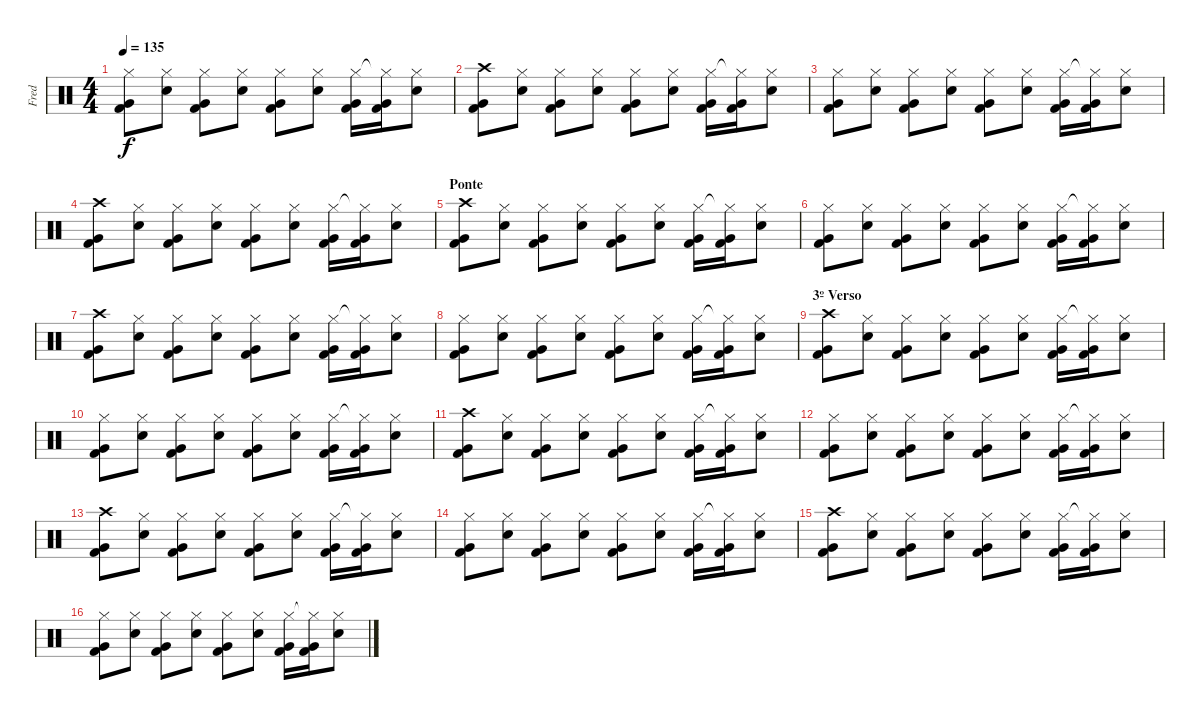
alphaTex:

\track ("Fred" "Fred") {instrument percussion}
\staff {score}
\articulation defaults
\ts (4 4)
\tempo 135
\clef neutral
\ks c
("Very Low Tom (hit)" "Kick (hit) 2" "Hi-Hat (closed)").8{dy f} ("Snare (hit) 2" "Hi-Hat (closed)").8 ("Very Low Tom (hit)" "Kick (hit) 2" "Hi-Hat (closed)").8 ("Snare (hit) 2" "Hi-Hat (closed)").8 ("Very Low Tom (hit)" "Kick (hit) 2" "Hi-Hat (closed)").8 ("Snare (hit) 2" "Hi-Hat (closed)").8 ("Very Low Tom (hit)" "Kick (hit) 2" "Hi-Hat (closed)").16 ("Very Low Tom (hit)" "Kick (hit) 2" "Hi-Hat (closed)"{t}).16 ("Snare (hit) 2" "Hi-Hat (closed)").8 |
("Very Low Tom (hit)" "Kick (hit) 2" "Crash high (hit)").8 ("Snare (hit) 2" "Hi-Hat (closed)").8 ("Very Low Tom (hit)" "Kick (hit) 2" "Hi-Hat (closed)").8 ("Snare (hit) 2" "Hi-Hat (closed)").8 ("Very Low Tom (hit)" "Kick (hit) 2" "Hi-Hat (closed)").8 ("Snare (hit) 2" "Hi-Hat (closed)").8 ("Very Low Tom (hit)" "Kick (hit) 2" "Hi-Hat (closed)").16 ("Very Low Tom (hit)" "Kick (hit) 2" "Hi-Hat (closed)"{t}).16 ("Snare (hit) 2" "Hi-Hat (closed)").8 |
("Very Low Tom (hit)" "Kick (hit) 2" "Hi-Hat (closed)").8 ("Snare (hit) 2" "Hi-Hat (closed)").8 ("Very Low Tom (hit)" "Kick (hit) 2" "Hi-Hat (closed)").8 ("Snare (hit) 2" "Hi-Hat (closed)").8 ("Very Low Tom (hit)" "Kick (hit) 2" "Hi-Hat (closed)").8 ("Snare (hit) 2" "Hi-Hat (closed)").8 ("Very Low Tom (hit)" "Kick (hit) 2" "Hi-Hat (closed)").16 ("Very Low Tom (hit)" "Kick (hit) 2" "Hi-Hat (closed)"{t}).16 ("Snare (hit) 2" "Hi-Hat (closed)").8 |
("Very Low Tom (hit)" "Kick (hit) 2" "Crash high (hit)").8 ("Snare (hit) 2" "Hi-Hat (closed)").8 ("Very Low Tom (hit)" "Kick (hit) 2" "Hi-Hat (closed)").8 ("Snare (hit) 2" "Hi-Hat (closed)").8 ("Very Low Tom (hit)" "Kick (hit) 2" "Hi-Hat (closed)").8 ("Snare (hit) 2" "Hi-Hat (closed)").8 ("Very Low Tom (hit)" "Kick (hit) 2" "Hi-Hat (closed)").16 ("Very Low Tom (hit)" "Kick (hit) 2" "Hi-Hat (closed)"{t}).16 ("Snare (hit) 2" "Hi-Hat (closed)").8 |
\section ("" "Ponte")
("Very Low Tom (hit)" "Kick (hit) 2" "Crash high (hit)").8 ("Snare (hit) 2" "Hi-Hat (closed)").8 ("Very Low Tom (hit)" "Kick (hit) 2" "Hi-Hat (closed)").8 ("Snare (hit) 2" "Hi-Hat (closed)").8 ("Very Low Tom (hit)" "Kick (hit) 2" "Hi-Hat (closed)").8 ("Snare (hit) 2" "Hi-Hat (closed)").8 ("Very Low Tom (hit)" "Kick (hit) 2" "Hi-Hat (closed)").16 ("Very Low Tom (hit)" "Kick (hit) 2" "Hi-Hat (closed)"{t}).16 ("Snare (hit) 2" "Hi-Hat (closed)").8 |
("Very Low Tom (hit)" "Kick (hit) 2" "Hi-Hat (closed)").8 ("Snare (hit) 2" "Hi-Hat (closed)").8 ("Very Low Tom (hit)" "Kick (hit) 2" "Hi-Hat (closed)").8 ("Snare (hit) 2" "Hi-Hat (closed)").8 ("Very Low Tom (hit)" "Kick (hit) 2" "Hi-Hat (closed)").8 ("Snare (hit) 2" "Hi-Hat (closed)").8 ("Very Low Tom (hit)" "Kick (hit) 2" "Hi-Hat (closed)").16 ("Very Low Tom (hit)" "Kick (hit) 2" "Hi-Hat (closed)"{t}).16 ("Snare (hit) 2" "Hi-Hat (closed)").8 |
("Very Low Tom (hit)" "Kick (hit) 2" "Crash high (hit)").8 ("Snare (hit) 2" "Hi-Hat (closed)").8 ("Very Low Tom (hit)" "Kick (hit) 2" "Hi-Hat (closed)").8 ("Snare (hit) 2" "Hi-Hat (closed)").8 ("Very Low Tom (hit)" "Kick (hit) 2" "Hi-Hat (closed)").8 ("Snare (hit) 2" "Hi-Hat (closed)").8 ("Very Low Tom (hit)" "Kick (hit) 2" "Hi-Hat (closed)").16 ("Very Low Tom (hit)" "Kick (hit) 2" "Hi-Hat (closed)"{t}).16 ("Snare (hit) 2" "Hi-Hat (closed)").8 |
("Very Low Tom (hit)" "Kick (hit) 2" "Hi-Hat (closed)").8 ("Snare (hit) 2" "Hi-Hat (closed)").8 ("Very Low Tom (hit)" "Kick (hit) 2" "Hi-Hat (closed)").8 ("Snare (hit) 2" "Hi-Hat (closed)").8 ("Very Low Tom (hit)" "Kick (hit) 2" "Hi-Hat (closed)").8 ("Snare (hit) 2" "Hi-Hat (closed)").8 ("Very Low Tom (hit)" "Kick (hit) 2" "Hi-Hat (closed)").16 ("Very Low Tom (hit)" "Kick (hit) 2" "Hi-Hat (closed)"{t}).16 ("Snare (hit) 2" "Hi-Hat (closed)").8 |
\section ("" "3º Verso")
("Very Low Tom (hit)" "Kick (hit) 2" "Crash high (hit)").8 ("Snare (hit) 2" "Hi-Hat (closed)").8 ("Very Low Tom (hit)" "Kick (hit) 2" "Hi-Hat (closed)").8 ("Snare (hit) 2" "Hi-Hat (closed)").8 ("Very Low Tom (hit)" "Kick (hit) 2" "Hi-Hat (closed)").8 ("Snare (hit) 2" "Hi-Hat (closed)").8 ("Very Low Tom (hit)" "Kick (hit) 2" "Hi-Hat (closed)").16 ("Very Low Tom (hit)" "Kick (hit) 2" "Hi-Hat (closed)"{t}).16 ("Snare (hit) 2" "Hi-Hat (closed)").8 |
("Very Low Tom (hit)" "Kick (hit) 2" "Hi-Hat (closed)").8 ("Snare (hit) 2" "Hi-Hat (closed)").8 ("Very Low Tom (hit)" "Kick (hit) 2" "Hi-Hat (closed)").8 ("Snare (hit) 2" "Hi-Hat (closed)").8 ("Very Low Tom (hit)" "Kick (hit) 2" "Hi-Hat (closed)").8 ("Snare (hit) 2" "Hi-Hat (closed)").8 ("Very Low Tom (hit)" "Kick (hit) 2" "Hi-Hat (closed)").16 ("Very Low Tom (hit)" "Kick (hit) 2" "Hi-Hat (closed)"{t}).16 ("Snare (hit) 2" "Hi-Hat (closed)").8 |
("Very Low Tom (hit)" "Kick (hit) 2" "Crash high (hit)").8 ("Snare (hit) 2" "Hi-Hat (closed)").8 ("Very Low Tom (hit)" "Kick (hit) 2" "Hi-Hat (closed)").8 ("Snare (hit) 2" "Hi-Hat (closed)").8 ("Very Low Tom (hit)" "Kick (hit) 2" "Hi-Hat (closed)").8 ("Snare (hit) 2" "Hi-Hat (closed)").8 ("Very Low Tom (hit)" "Kick (hit) 2" "Hi-Hat (closed)").16 ("Very Low Tom (hit)" "Kick (hit) 2" "Hi-Hat (closed)"{t}).16 ("Snare (hit) 2" "Hi-Hat (closed)").8 |
("Very Low Tom (hit)" "Kick (hit) 2" "Hi-Hat (closed)").8 ("Snare (hit) 2" "Hi-Hat (closed)").8 ("Very Low Tom (hit)" "Kick (hit) 2" "Hi-Hat (closed)").8 ("Snare (hit) 2" "Hi-Hat (closed)").8 ("Very Low Tom (hit)" "Kick (hit) 2" "Hi-Hat (closed)").8 ("Snare (hit) 2" "Hi-Hat (closed)").8 ("Very Low Tom (hit)" "Kick (hit) 2" "Hi-Hat (closed)").16 ("Very Low Tom (hit)" "Kick (hit) 2" "Hi-Hat (closed)"{t}).16 ("Snare (hit) 2" "Hi-Hat (closed)").8 |
("Very Low Tom (hit)" "Kick (hit) 2" "Crash high (hit)").8 ("Snare (hit) 2" "Hi-Hat (closed)").8 ("Very Low Tom (hit)" "Kick (hit) 2" "Hi-Hat (closed)").8 ("Snare (hit) 2" "Hi-Hat (closed)").8 ("Very Low Tom (hit)" "Kick (hit) 2" "Hi-Hat (closed)").8 ("Snare (hit) 2" "Hi-Hat (closed)").8 ("Very Low Tom (hit)" "Kick (hit) 2" "Hi-Hat (closed)").16 ("Very Low Tom (hit)" "Kick (hit) 2" "Hi-Hat (closed)"{t}).16 ("Snare (hit) 2" "Hi-Hat (closed)").8 |
("Very Low Tom (hit)" "Kick (hit) 2" "Hi-Hat (closed)").8 ("Snare (hit) 2" "Hi-Hat (closed)").8 ("Very Low Tom (hit)" "Kick (hit) 2" "Hi-Hat (closed)").8 ("Snare (hit) 2" "Hi-Hat (closed)").8 ("Very Low Tom (hit)" "Kick (hit) 2" "Hi-Hat (closed)").8 ("Snare (hit) 2" "Hi-Hat (closed)").8 ("Very Low Tom (hit)" "Kick (hit) 2" "Hi-Hat (closed)").16 ("Very Low Tom (hit)" "Kick (hit) 2" "Hi-Hat (closed)"{t}).16 ("Snare (hit) 2" "Hi-Hat (closed)").8 |
("Very Low Tom (hit)" "Kick (hit) 2" "Crash high (hit)").8 ("Snare (hit) 2" "Hi-Hat (closed)").8 ("Very Low Tom (hit)" "Kick (hit) 2" "Hi-Hat (closed)").8 ("Snare (hit) 2" "Hi-Hat (closed)").8 ("Very Low Tom (hit)" "Kick (hit) 2" "Hi-Hat (closed)").8 ("Snare (hit) 2" "Hi-Hat (closed)").8 ("Very Low Tom (hit)" "Kick (hit) 2" "Hi-Hat (closed)").16 ("Very Low Tom (hit)" "Kick (hit) 2" "Hi-Hat (closed)"{t}).16 ("Snare (hit) 2" "Hi-Hat (closed)").8 |
("Very Low Tom (hit)" "Kick (hit) 2" "Hi-Hat (closed)").8 ("Snare (hit) 2" "Hi-Hat (closed)").8 ("Very Low Tom (hit)" "Kick (hit) 2" "Hi-Hat (closed)").8 ("Snare (hit) 2" "Hi-Hat (closed)").8 ("Very Low Tom (hit)" "Kick (hit) 2" "Hi-Hat (closed)").8 ("Snare (hit) 2" "Hi-Hat (closed)").8 ("Very Low Tom (hit)" "Kick (hit) 2" "Hi-Hat (closed)").16 ("Very Low Tom (hit)" "Kick (hit) 2" "Hi-Hat (closed)"{t}).16 ("Snare (hit) 2" "Hi-Hat (closed)").8
